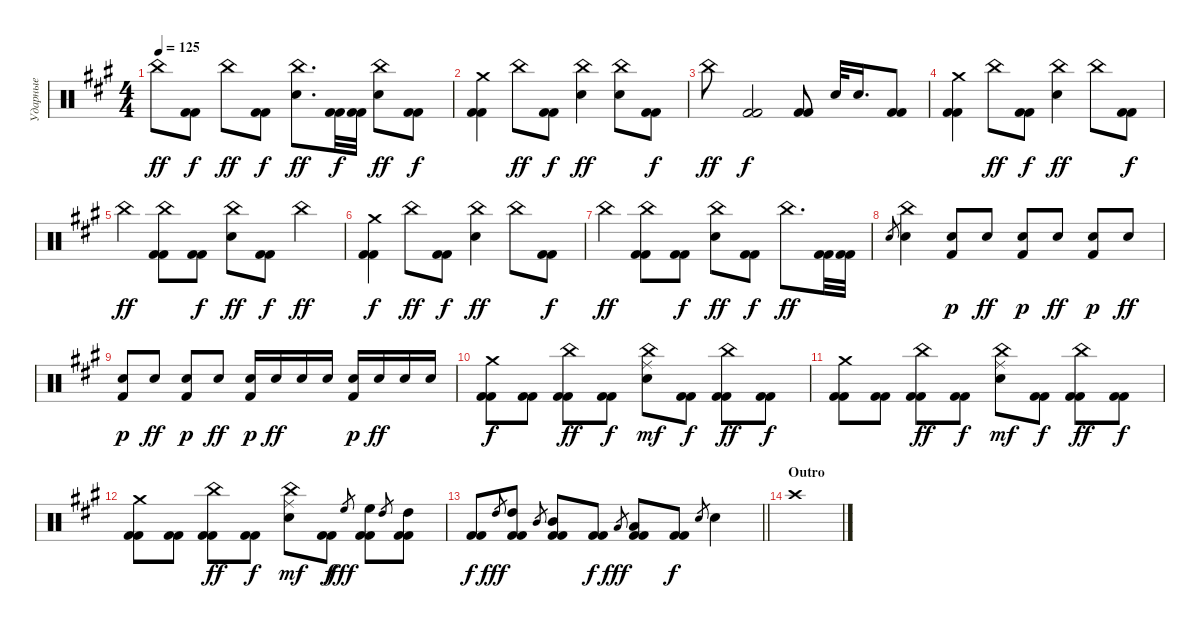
\track ("Ударные" "Ударные") {instrument percussion}
\staff {score}
\articulation defaults
\ts (4 4)
\tempo 125
\clef neutral
\ks f#minor "China (hit)".8{dy ff}
("Kick (hit) 2" "Kick (hit) 2").8{dy f} "China (hit)".8{dy ff} ("Kick (hit) 2" "Kick (hit) 2").8{dy f} ("China (hit)" "Electric Snare (hit)").8{d dy ff} ("Kick (hit) 2" "Kick (hit) 2").32{dy f} ("Kick (hit) 2" "Kick (hit) 2").32 ("China (hit)" "Electric Snare (hit)").8{dy ff} ("Kick (hit) 2" "Kick (hit) 2").8{dy f} |
("Crash medium (hit)" "Kick (hit) 2" "Kick (hit) 2").4 "China (hit)".8{dy ff} ("Kick (hit) 2" "Kick (hit) 2").8{dy f} ("China (hit)" "Electric Snare (hit)").4{dy ff} ("China (hit)" "Electric Snare (hit)").8 ("Kick (hit) 2" "Kick (hit) 2").8{dy f} |
"China (hit)".8{dy ff} ("Kick (hit) 2" "Kick (hit) 2").2{dy f} ("Kick (hit) 2" "Kick (hit) 2").8 "Electric Snare (hit)".32 "Electric Snare (hit)".16{d} ("Kick (hit) 2" "Kick (hit) 2").8 |
("Crash medium (hit)" "Kick (hit) 2" "Kick (hit) 2").4 "China (hit)".8{dy ff} ("Kick (hit) 2" "Kick (hit) 2").8{dy f} ("China (hit)" "Electric Snare (hit)").4{dy ff} "China (hit)".8 ("Kick (hit) 2" "Kick (hit) 2").8{dy f} |
"China (hit)".4{dy ff} ("China (hit)" "Kick (hit) 2" "Kick (hit) 2").8 ("Kick (hit) 2" "Kick (hit) 2").8{dy f} ("China (hit)" "Electric Snare (hit)").8{dy ff} ("Kick (hit) 2" "Kick (hit) 2").8{dy f} "China (hit)".4{dy ff} |
("Crash medium (hit)" "Kick (hit) 2" "Kick (hit) 2").4{dy f} "China (hit)".8{dy ff} ("Kick (hit) 2" "Kick (hit) 2").8{dy f} ("China (hit)" "Electric Snare (hit)").4{dy ff} "China (hit)".8 ("Kick (hit) 2" "Kick (hit) 2").8{dy f} |
"China (hit)".4{dy ff} ("China (hit)" "Kick (hit) 2" "Kick (hit) 2").8 ("Kick (hit) 2" "Kick (hit) 2").8{dy f} ("China (hit)" "Electric Snare (hit)").8{dy ff} ("Kick (hit) 2" "Kick (hit) 2").8{dy f} "China (hit)".8{d dy ff} ("Kick (hit) 2" "Kick (hit) 2").32 ("Kick (hit) 2" "Kick (hit) 2").32 |
"Electric Snare (hit)".8{gr} ("China (hit)" "Electric Snare (hit)").4 ("Electric Snare (hit)" "Kick (hit) 2").8{dy p} "Electric Snare (hit)".8{dy ff} ("Electric Snare (hit)" "Kick (hit) 2").8{dy p} "Electric Snare (hit)".8{dy ff} ("Electric Snare (hit)" "Kick (hit) 2").8{dy p} "Electric Snare (hit)".8{dy ff} |
("Electric Snare (hit)" "Kick (hit) 2").8{dy p} "Electric Snare (hit)".8{dy ff} ("Electric Snare (hit)" "Kick (hit) 2").8{dy p} "Electric Snare (hit)".8{dy ff} ("Electric Snare (hit)" "Kick (hit) 2").16{dy p} "Electric Snare (hit)".16{dy ff} "Electric Snare (hit)".16 "Electric Snare (hit)".16 ("Electric Snare (hit)" "Kick (hit) 2").16{dy p} "Electric Snare (hit)".16{dy ff} "Electric Snare (hit)".16 "Electric Snare (hit)".16 |
("Crash medium (hit)" "Kick (hit) 2" "Kick (hit) 2").8{dy f} ("Kick (hit) 2" "Kick (hit) 2").8 ("China (hit)" "Kick (hit) 2" "Kick (hit) 2").8{dy ff} ("Kick (hit) 2" "Kick (hit) 2").8{dy f} ("China (hit)" "Ride (middle)" "Electric Snare (hit)").8{dy mf} ("Kick (hit) 2" "Kick (hit) 2").8{dy f} ("China (hit)" "Kick (hit) 2" "Kick (hit) 2").8{dy ff} ("Kick (hit) 2" "Kick (hit) 2").8{dy f} |
("Crash medium (hit)" "Kick (hit) 2" "Kick (hit) 2").8 ("Kick (hit) 2" "Kick (hit) 2").8 ("China (hit)" "Kick (hit) 2" "Kick (hit) 2").8{dy ff} ("Kick (hit) 2" "Kick (hit) 2").8{dy f} ("China (hit)" "Ride (middle)" "Electric Snare (hit)").8{dy mf} ("Kick (hit) 2" "Kick (hit) 2").8{dy f} ("China (hit)" "Kick (hit) 2" "Kick (hit) 2").8{dy ff} ("Kick (hit) 2" "Kick (hit) 2").8{dy f} |
("Crash medium (hit)" "Kick (hit) 2" "Kick (hit) 2").8 ("Kick (hit) 2" "Kick (hit) 2").8 ("China (hit)" "Kick (hit) 2" "Kick (hit) 2").8{dy ff} ("Kick (hit) 2" "Kick (hit) 2").8{dy f} ("China (hit)" "Ride (middle)" "Electric Snare (hit)").8{dy mf} ("Kick (hit) 2" "Kick (hit) 2").8{dy f} "High Floor Tom (hit)".8{gr dy fff} ("High Floor Tom (hit)" "Kick (hit) 2" "Kick (hit) 2").8 "High Tom (hit)".8{gr} ("High Tom (hit)" "Kick (hit) 2" "Kick (hit) 2").8 |
\barLineRight lightlight
("Kick (hit) 2" "Kick (hit) 2").8{dy f} "High Tom (hit)".8{gr dy fff} ("High Tom (hit)" "Kick (hit) 2" "Kick (hit) 2").8 "Mid Tom (hit)".8{gr} ("Mid Tom (hit)" "Kick (hit) 2" "Kick (hit) 2").8 ("Kick (hit) 2" "Kick (hit) 2").8{dy f} "Low Tom (hit)".8{gr dy fff} ("Low Tom (hit)" "Kick (hit) 2" "Kick (hit) 2").8 ("Kick (hit) 2" "Kick (hit) 2").8{dy f} "Electric Snare (hit)".8{gr} "Electric Snare (hit)".4 |
\section ("" "Outro")
"Crash high (hit)".1
